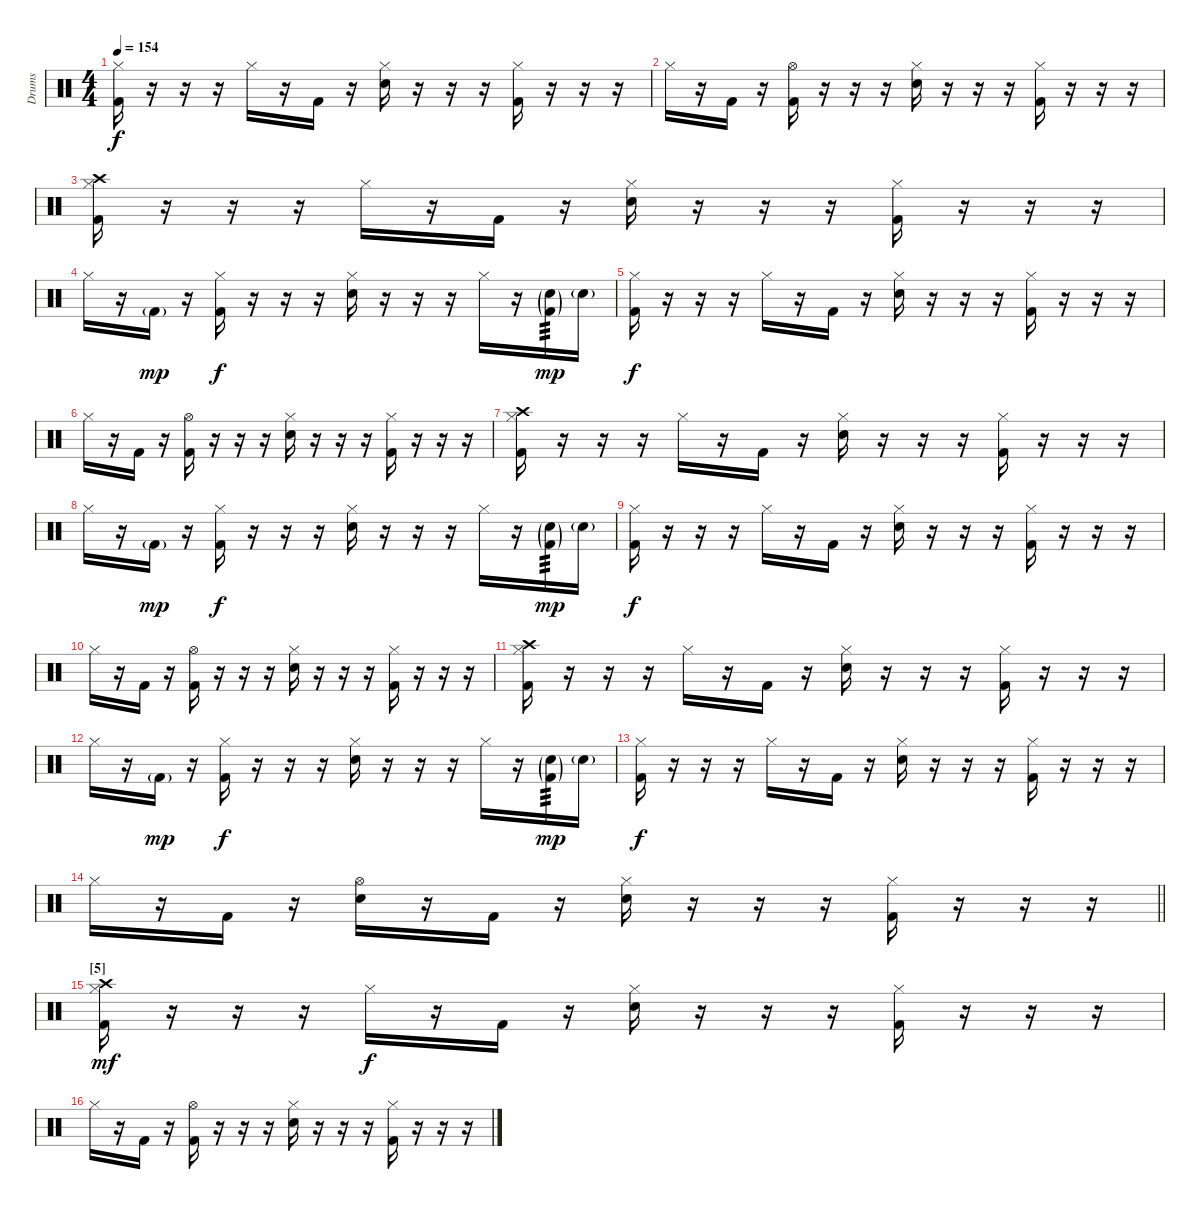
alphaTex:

\track ("Drums" "Drums") {instrument percussion}
\staff {score}
\articulation defaults
\ts (4 4)
\tempo 154
\clef neutral
\ks c
("Hi-Hat (closed)" "Kick (hit) 2").16{dy f} r.16 r.16 r.16 "Hi-Hat (closed)".16 r.16 "Kick (hit) 2".16 r.16 ("Hi-Hat (closed)" "Electric Snare (hit)").16 r.16 r.16 r.16 ("Hi-Hat (closed)" "Kick (hit) 2").16 r.16 r.16 r.16 |
"Hi-Hat (closed)".16 r.16 "Kick (hit) 2".16 r.16 ("Hi-Hat (open)" "Kick (hit) 2").16 r.16 r.16 r.16 ("Hi-Hat (closed)" "Electric Snare (hit)").16 r.16 r.16 r.16 ("Hi-Hat (closed)" "Kick (hit) 2").16 r.16 r.16 r.16 |
("Crash high (hit)" "Hi-Hat (closed)" "Kick (hit) 2").16 r.16 r.16 r.16 "Hi-Hat (closed)".16 r.16 "Kick (hit) 2".16 r.16 ("Hi-Hat (closed)" "Electric Snare (hit)").16 r.16 r.16 r.16 ("Hi-Hat (closed)" "Kick (hit) 2").16 r.16 r.16 r.16 |
"Hi-Hat (closed)".16 r.16 "Kick (hit) 2"{g}.16{dy mp} r.16 ("Hi-Hat (closed)" "Kick (hit) 2").16{dy f} r.16 r.16 r.16 ("Hi-Hat (closed)" "Electric Snare (hit)").16 r.16 r.16 r.16 "Hi-Hat (closed)".16 r.16 ("Electric Snare (hit)"{g} "Kick (hit) 2"{g}).16{tp 3 dy mp} "Electric Snare (hit)"{g}.16 |
("Hi-Hat (closed)" "Kick (hit) 2").16{dy f} r.16 r.16 r.16 "Hi-Hat (closed)".16 r.16 "Kick (hit) 2".16 r.16 ("Hi-Hat (closed)" "Electric Snare (hit)").16 r.16 r.16 r.16 ("Hi-Hat (closed)" "Kick (hit) 2").16 r.16 r.16 r.16 |
"Hi-Hat (closed)".16 r.16 "Kick (hit) 2".16 r.16 ("Hi-Hat (open)" "Kick (hit) 2").16 r.16 r.16 r.16 ("Hi-Hat (closed)" "Electric Snare (hit)").16 r.16 r.16 r.16 ("Hi-Hat (closed)" "Kick (hit) 2").16 r.16 r.16 r.16 |
("Crash high (hit)" "Hi-Hat (closed)" "Kick (hit) 2").16 r.16 r.16 r.16 "Hi-Hat (closed)".16 r.16 "Kick (hit) 2".16 r.16 ("Hi-Hat (closed)" "Electric Snare (hit)").16 r.16 r.16 r.16 ("Hi-Hat (closed)" "Kick (hit) 2").16 r.16 r.16 r.16 |
"Hi-Hat (closed)".16 r.16 "Kick (hit) 2"{g}.16{dy mp} r.16 ("Hi-Hat (closed)" "Kick (hit) 2").16{dy f} r.16 r.16 r.16 ("Hi-Hat (closed)" "Electric Snare (hit)").16 r.16 r.16 r.16 "Hi-Hat (closed)".16 r.16 ("Electric Snare (hit)"{g} "Kick (hit) 2"{g}).16{tp 3 dy mp} "Electric Snare (hit)"{g}.16 |
("Hi-Hat (closed)" "Kick (hit) 2").16{dy f} r.16 r.16 r.16 "Hi-Hat (closed)".16 r.16 "Kick (hit) 2".16 r.16 ("Hi-Hat (closed)" "Electric Snare (hit)").16 r.16 r.16 r.16 ("Hi-Hat (closed)" "Kick (hit) 2").16 r.16 r.16 r.16 |
"Hi-Hat (closed)".16 r.16 "Kick (hit) 2".16 r.16 ("Hi-Hat (open)" "Kick (hit) 2").16 r.16 r.16 r.16 ("Hi-Hat (closed)" "Electric Snare (hit)").16 r.16 r.16 r.16 ("Hi-Hat (closed)" "Kick (hit) 2").16 r.16 r.16 r.16 |
("Crash high (hit)" "Hi-Hat (closed)" "Kick (hit) 2").16 r.16 r.16 r.16 "Hi-Hat (closed)".16 r.16 "Kick (hit) 2".16 r.16 ("Hi-Hat (closed)" "Electric Snare (hit)").16 r.16 r.16 r.16 ("Hi-Hat (closed)" "Kick (hit) 2").16 r.16 r.16 r.16 |
"Hi-Hat (closed)".16 r.16 "Kick (hit) 2"{g}.16{dy mp} r.16 ("Hi-Hat (closed)" "Kick (hit) 2").16{dy f} r.16 r.16 r.16 ("Hi-Hat (closed)" "Electric Snare (hit)").16 r.16 r.16 r.16 "Hi-Hat (closed)".16 r.16 ("Electric Snare (hit)"{g} "Kick (hit) 2"{g}).16{tp 3 dy mp} "Electric Snare (hit)"{g}.16 |
("Hi-Hat (closed)" "Kick (hit) 2").16{dy f} r.16 r.16 r.16 "Hi-Hat (closed)".16 r.16 "Kick (hit) 2".16 r.16 ("Hi-Hat (closed)" "Electric Snare (hit)").16 r.16 r.16 r.16 ("Hi-Hat (closed)" "Kick (hit) 2").16 r.16 r.16 r.16 |
\barLineRight lightlight "Hi-Hat (closed)".16
r.16 "Kick (hit) 2".16 r.16 ("Hi-Hat (open)" "Electric Snare (hit)").16 r.16 "Kick (hit) 2".16 r.16 ("Hi-Hat (closed)" "Electric Snare (hit)").16 r.16 r.16 r.16 ("Hi-Hat (closed)" "Kick (hit) 2").16 r.16 r.16 r.16 |
\section ("" "[5]")
("Crash high (hit)" "Hi-Hat (closed)" "Kick (hit) 2").16{dy mf} r.16 r.16 r.16 "Hi-Hat (closed)".16{dy f} r.16 "Kick (hit) 2".16 r.16 ("Hi-Hat (closed)" "Electric Snare (hit)").16 r.16 r.16 r.16 ("Hi-Hat (closed)" "Kick (hit) 2").16 r.16 r.16 r.16 |
"Hi-Hat (closed)".16 r.16 "Kick (hit) 2".16 r.16 ("Hi-Hat (open)" "Kick (hit) 2").16 r.16 r.16 r.16 ("Hi-Hat (closed)" "Electric Snare (hit)").16 r.16 r.16 r.16 ("Hi-Hat (closed)" "Kick (hit) 2").16 r.16 r.16 r.16
